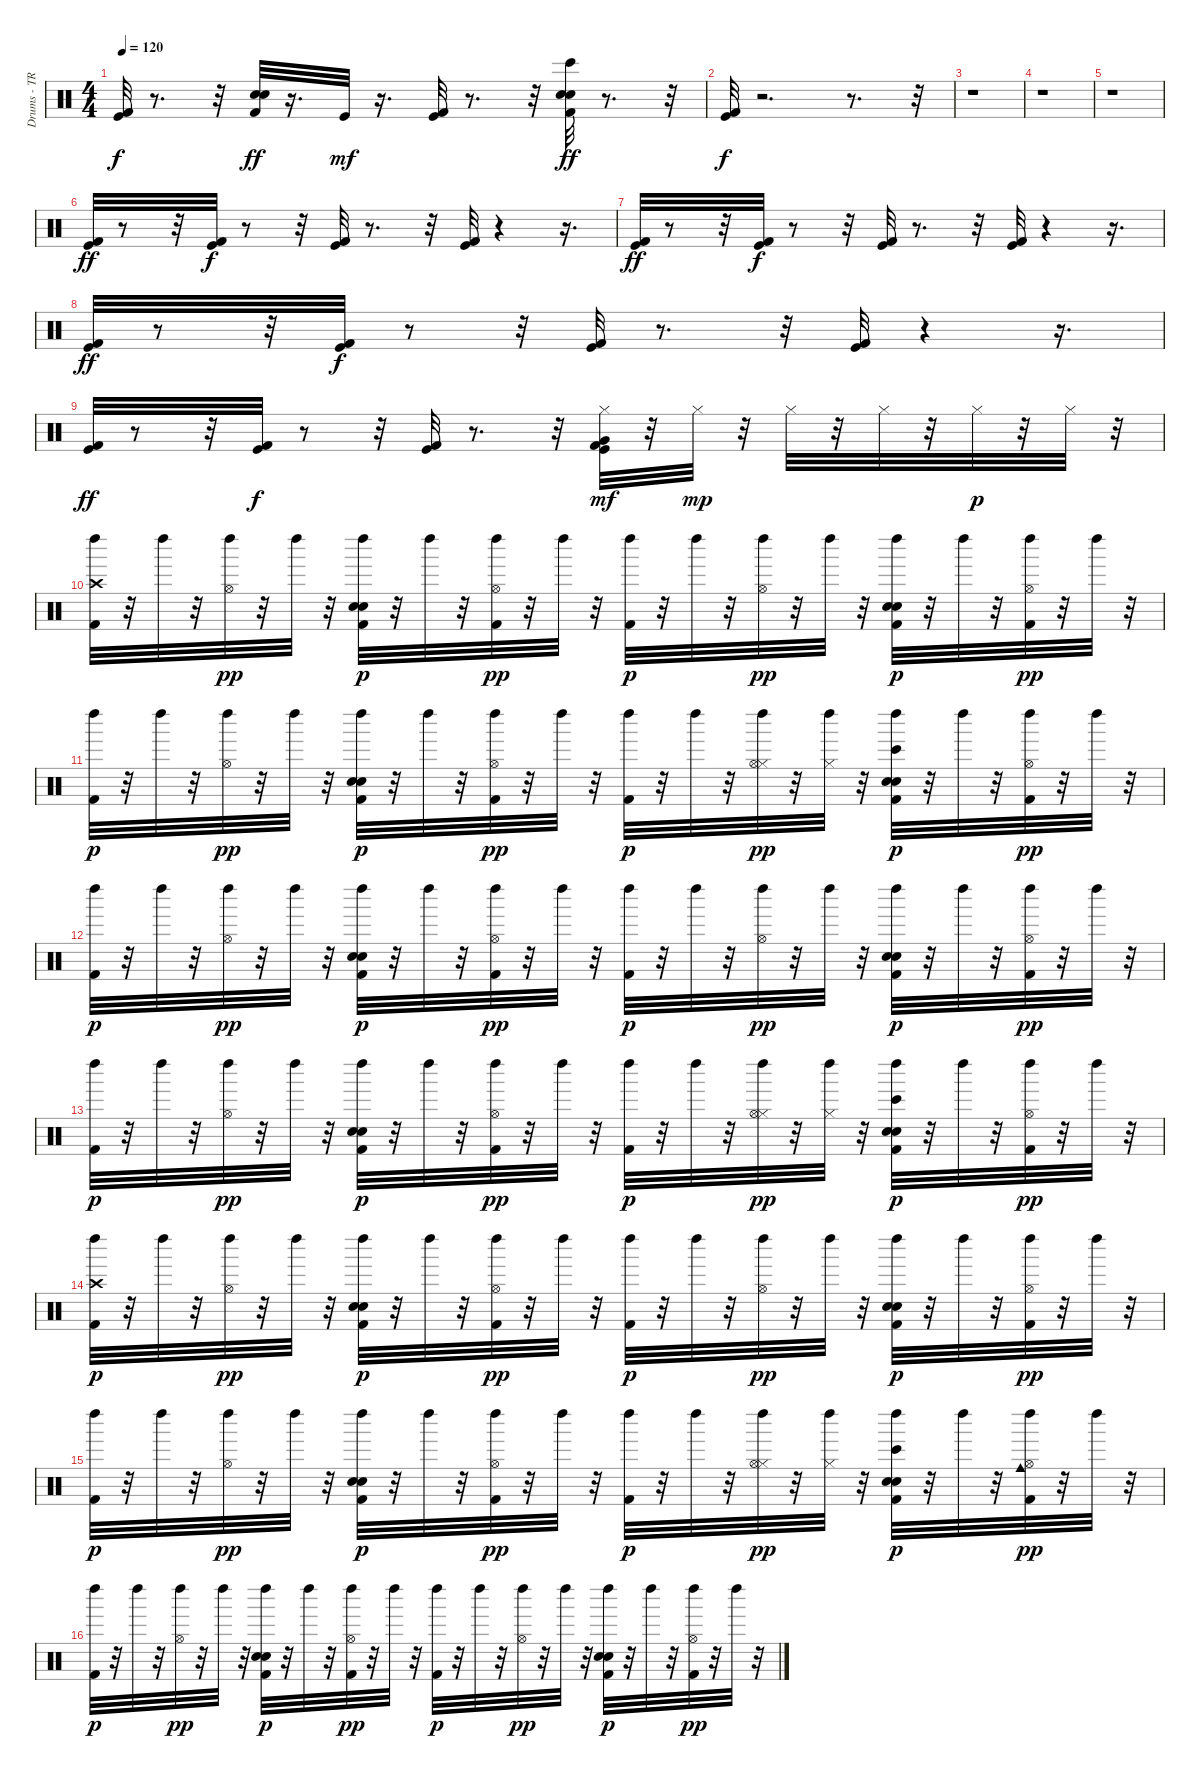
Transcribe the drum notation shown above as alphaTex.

\track ("Drums - TR" "Drums - TR") {instrument percussion}
\staff {score}
\articulation defaults
\ts (4 4)
\tempo 120
\clef neutral
\ks c
("Kick (hit)" "Kick (hit) 2").32{dy f} r.8{d} r.32 ("Kick (hit) 2" "Snare (hit) 2" "Hand Clap (hit)").32{dy ff} r.16{d} "Kick (hit)".32{dy mf} r.16{d} ("Kick (hit)" "Kick (hit) 2").32 r.8{d} r.32 ("Kick (hit) 2" "Snare (hit) 2" "Hand Clap (hit)" "Bongo High (hit)").32{dy ff} r.8{d} r.32 |
("Kick (hit)" "Kick (hit) 2").32{dy f} r.2{d} r.8{d} r.32 |
r.1 |
r.1 |
r.1 |
("Kick (hit)" "Kick (hit) 2").32{dy ff} r.8 r.32 ("Kick (hit)" "Kick (hit) 2").32{dy f} r.8 r.32 ("Kick (hit)" "Kick (hit) 2").32 r.8{d} r.32 ("Kick (hit)" "Kick (hit) 2").32 r.4 r.16{d} |
("Kick (hit)" "Kick (hit) 2").32{dy ff} r.8 r.32 ("Kick (hit)" "Kick (hit) 2").32{dy f} r.8 r.32 ("Kick (hit)" "Kick (hit) 2").32 r.8{d} r.32 ("Kick (hit)" "Kick (hit) 2").32 r.4 r.16{d} |
("Kick (hit)" "Kick (hit) 2").32{dy ff} r.8 r.32 ("Kick (hit)" "Kick (hit) 2").32{dy f} r.8 r.32 ("Kick (hit)" "Kick (hit) 2").32 r.8{d} r.32 ("Kick (hit)" "Kick (hit) 2").32 r.4 r.16{d} |
("Kick (hit)" "Kick (hit) 2").32{dy ff} r.8 r.32 ("Kick (hit)" "Kick (hit) 2").32{dy f} r.8 r.32 ("Kick (hit)" "Kick (hit) 2").32 r.8{d} r.32 ("Kick (hit)" "Kick (hit) 2" "Hi-Hat (closed)" "Very Low Tom (hit)").32{dy mf} r.32 "Hi-Hat (closed)".32{dy mp} r.32 "Hi-Hat (closed)".32 r.32 "Hi-Hat (closed)".32 r.32 "Hi-Hat (closed)".32{dy p} r.32 "Hi-Hat (closed)".32 r.32 |
("Kick (hit) 2" "Crash high (hit)" "Left Maraca (hit)").32 r.32 "Left Maraca (hit)".32 r.32 ("Hi-Hat (open)" "Left Maraca (hit)").32{dy pp} r.32 "Left Maraca (hit)".32 r.32 ("Kick (hit) 2" "Snare (hit) 2" "Hand Clap (hit)" "Left Maraca (hit)").32{dy p} r.32 "Left Maraca (hit)".32 r.32 ("Kick (hit) 2" "Hi-Hat (open)" "Left Maraca (hit)").32{dy pp} r.32 "Left Maraca (hit)".32 r.32 ("Kick (hit) 2" "Left Maraca (hit)").32{dy p} r.32 "Left Maraca (hit)".32 r.32 ("Hi-Hat (open)" "Left Maraca (hit)").32{dy pp} r.32 "Left Maraca (hit)".32 r.32 ("Kick (hit) 2" "Snare (hit) 2" "Hand Clap (hit)" "Left Maraca (hit)").32{dy p} r.32 "Left Maraca (hit)".32 r.32 ("Kick (hit) 2" "Hi-Hat (open)" "Left Maraca (hit)").32{dy pp} r.32 "Left Maraca (hit)".32 r.32 |
("Kick (hit) 2" "Left Maraca (hit)").32{dy p} r.32 "Left Maraca (hit)".32 r.32 ("Hi-Hat (open)" "Left Maraca (hit)").32{dy pp} r.32 "Left Maraca (hit)".32 r.32 ("Kick (hit) 2" "Snare (hit) 2" "Hand Clap (hit)" "Left Maraca (hit)").32{dy p} r.32 "Left Maraca (hit)".32 r.32 ("Kick (hit) 2" "Hi-Hat (open)" "Left Maraca (hit)").32{dy pp} r.32 "Left Maraca (hit)".32 r.32 ("Kick (hit) 2" "Left Maraca (hit)").32{dy p} r.32 "Left Maraca (hit)".32 r.32 ("Hi-Hat (closed)" "Hi-Hat (open)" "Left Maraca (hit)").32{dy pp} r.32 ("Hi-Hat (closed)" "Left Maraca (hit)").32 r.32 ("Kick (hit) 2" "Snare (hit) 2" "Hand Clap (hit)" "Left Maraca (hit)" "Bongo High (hit)").32{dy p} r.32 "Left Maraca (hit)".32 r.32 ("Kick (hit) 2" "Hi-Hat (open)" "Left Maraca (hit)").32{dy pp} r.32 "Left Maraca (hit)".32 r.32 |
("Kick (hit) 2" "Left Maraca (hit)").32{dy p} r.32 "Left Maraca (hit)".32 r.32 ("Hi-Hat (open)" "Left Maraca (hit)").32{dy pp} r.32 "Left Maraca (hit)".32 r.32 ("Kick (hit) 2" "Snare (hit) 2" "Hand Clap (hit)" "Left Maraca (hit)").32{dy p} r.32 "Left Maraca (hit)".32 r.32 ("Kick (hit) 2" "Hi-Hat (open)" "Left Maraca (hit)").32{dy pp} r.32 "Left Maraca (hit)".32 r.32 ("Kick (hit) 2" "Left Maraca (hit)").32{dy p} r.32 "Left Maraca (hit)".32 r.32 ("Hi-Hat (open)" "Left Maraca (hit)").32{dy pp} r.32 "Left Maraca (hit)".32 r.32 ("Kick (hit) 2" "Snare (hit) 2" "Hand Clap (hit)" "Left Maraca (hit)").32{dy p} r.32 "Left Maraca (hit)".32 r.32 ("Kick (hit) 2" "Hi-Hat (open)" "Left Maraca (hit)").32{dy pp} r.32 "Left Maraca (hit)".32 r.32 |
("Kick (hit) 2" "Left Maraca (hit)").32{dy p} r.32 "Left Maraca (hit)".32 r.32 ("Hi-Hat (open)" "Left Maraca (hit)").32{dy pp} r.32 "Left Maraca (hit)".32 r.32 ("Kick (hit) 2" "Snare (hit) 2" "Hand Clap (hit)" "Left Maraca (hit)").32{dy p} r.32 "Left Maraca (hit)".32 r.32 ("Kick (hit) 2" "Hi-Hat (open)" "Left Maraca (hit)").32{dy pp} r.32 "Left Maraca (hit)".32 r.32 ("Kick (hit) 2" "Left Maraca (hit)").32{dy p} r.32 "Left Maraca (hit)".32 r.32 ("Hi-Hat (closed)" "Hi-Hat (open)" "Left Maraca (hit)").32{dy pp} r.32 ("Hi-Hat (closed)" "Left Maraca (hit)").32 r.32 ("Kick (hit) 2" "Snare (hit) 2" "Hand Clap (hit)" "Left Maraca (hit)" "Bongo High (hit)").32{dy p} r.32 "Left Maraca (hit)".32 r.32 ("Kick (hit) 2" "Hi-Hat (open)" "Left Maraca (hit)").32{dy pp} r.32 "Left Maraca (hit)".32 r.32 |
("Kick (hit) 2" "Crash high (hit)" "Left Maraca (hit)").32{dy p} r.32 "Left Maraca (hit)".32 r.32 ("Hi-Hat (open)" "Left Maraca (hit)").32{dy pp} r.32 "Left Maraca (hit)".32 r.32 ("Kick (hit) 2" "Snare (hit) 2" "Hand Clap (hit)" "Left Maraca (hit)").32{dy p} r.32 "Left Maraca (hit)".32 r.32 ("Kick (hit) 2" "Hi-Hat (open)" "Left Maraca (hit)").32{dy pp} r.32 "Left Maraca (hit)".32 r.32 ("Kick (hit) 2" "Left Maraca (hit)").32{dy p} r.32 "Left Maraca (hit)".32 r.32 ("Hi-Hat (open)" "Left Maraca (hit)").32{dy pp} r.32 "Left Maraca (hit)".32 r.32 ("Kick (hit) 2" "Snare (hit) 2" "Hand Clap (hit)" "Left Maraca (hit)").32{dy p} r.32 "Left Maraca (hit)".32 r.32 ("Kick (hit) 2" "Hi-Hat (open)" "Left Maraca (hit)").32{dy pp} r.32 "Left Maraca (hit)".32 r.32 |
("Kick (hit) 2" "Left Maraca (hit)").32{dy p} r.32 "Left Maraca (hit)".32 r.32 ("Hi-Hat (open)" "Left Maraca (hit)").32{dy pp} r.32 "Left Maraca (hit)".32 r.32 ("Kick (hit) 2" "Snare (hit) 2" "Hand Clap (hit)" "Left Maraca (hit)").32{dy p} r.32 "Left Maraca (hit)".32 r.32 ("Kick (hit) 2" "Hi-Hat (open)" "Left Maraca (hit)").32{dy pp} r.32 "Left Maraca (hit)".32 r.32 ("Kick (hit) 2" "Left Maraca (hit)").32{dy p} r.32 "Left Maraca (hit)".32 r.32 ("Hi-Hat (closed)" "Hi-Hat (open)" "Left Maraca (hit)").32{dy pp} r.32 ("Hi-Hat (closed)" "Left Maraca (hit)").32 r.32 ("Kick (hit) 2" "Snare (hit) 2" "Hand Clap (hit)" "Left Maraca (hit)" "Bongo High (hit)").32{dy p} r.32 "Left Maraca (hit)".32 r.32 ("Kick (hit) 2" "Hi-Hat (open)" "Cowbell medium (hit)" "Left Maraca (hit)").32{dy pp} r.32 "Left Maraca (hit)".32 r.32 |
("Kick (hit) 2" "Left Maraca (hit)").32{dy p} r.32 "Left Maraca (hit)".32 r.32 ("Hi-Hat (open)" "Left Maraca (hit)").32{dy pp} r.32 "Left Maraca (hit)".32 r.32 ("Kick (hit) 2" "Snare (hit) 2" "Hand Clap (hit)" "Left Maraca (hit)").32{dy p} r.32 "Left Maraca (hit)".32 r.32 ("Kick (hit) 2" "Hi-Hat (open)" "Left Maraca (hit)").32{dy pp} r.32 "Left Maraca (hit)".32 r.32 ("Kick (hit) 2" "Left Maraca (hit)").32{dy p} r.32 "Left Maraca (hit)".32 r.32 ("Hi-Hat (open)" "Left Maraca (hit)").32{dy pp} r.32 "Left Maraca (hit)".32 r.32 ("Kick (hit) 2" "Snare (hit) 2" "Hand Clap (hit)" "Left Maraca (hit)").32{dy p} r.32 "Left Maraca (hit)".32 r.32 ("Kick (hit) 2" "Hi-Hat (open)" "Left Maraca (hit)").32{dy pp} r.32 "Left Maraca (hit)".32 r.32
